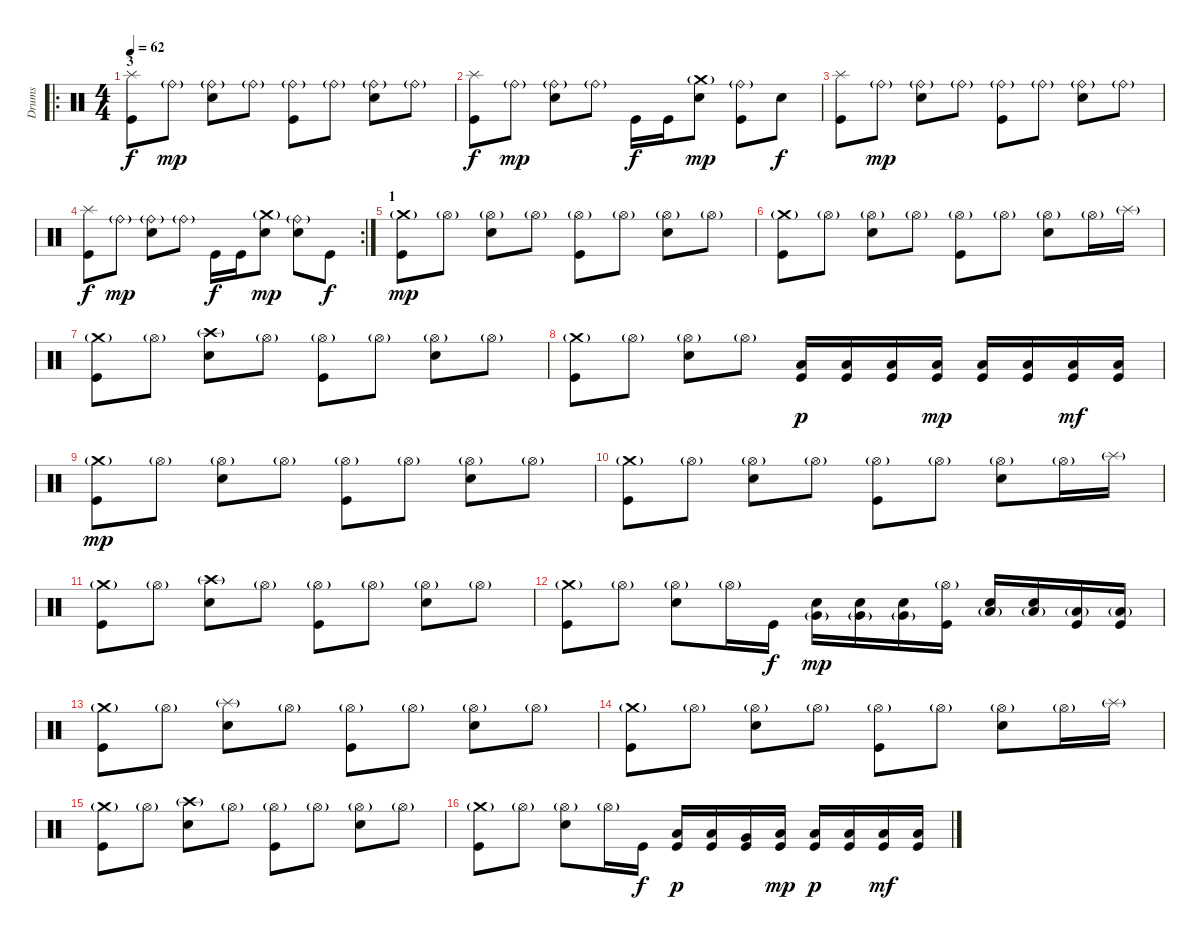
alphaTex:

\track ("Drums" "Drums") {instrument percussion}
\staff {score}
\articulation defaults
\ro
\ts (4 4)
\section ("" "3")
\tempo 62
\clef neutral
\ks c
("Kick (hit)" "Splash (hit)").8{dy f} "Ride (bell)"{g}.8{dy mp} ("Electric Snare (hit)" "Ride (bell)"{g}).8 "Ride (bell)"{g}.8 ("Kick (hit)" "Ride (bell)"{g}).8 "Ride (bell)"{g}.8 ("Electric Snare (hit)" "Ride (bell)"{g}).8 "Ride (bell)"{g}.8 |
("Kick (hit)" "Splash (hit)").8{dy f} "Ride (bell)"{g}.8{dy mp} ("Electric Snare (hit)" "Ride (bell)"{g}).8 "Ride (bell)"{g}.8 "Kick (hit)".16{dy f} "Kick (hit)".16 ("Electric Snare (hit)" "Crash medium (hit)"{g}).8{dy mp} ("Kick (hit)" "Ride (bell)"{g}).8 "Electric Snare (hit)".8{dy f} |
("Kick (hit)" "Splash (hit)").8 "Ride (bell)"{g}.8{dy mp} ("Electric Snare (hit)" "Ride (bell)"{g}).8 "Ride (bell)"{g}.8 ("Kick (hit)" "Ride (bell)"{g}).8 "Ride (bell)"{g}.8 ("Electric Snare (hit)" "Ride (bell)"{g}).8 "Ride (bell)"{g}.8 |
\rc 2
("Kick (hit)" "Splash (hit)").8{dy f} "Ride (bell)"{g}.8{dy mp} ("Electric Snare (hit)" "Ride (bell)"{g}).8 "Ride (bell)"{g}.8 "Kick (hit)".16{dy f} "Kick (hit)".16 ("Electric Snare (hit)" "Crash medium (hit)"{g}).8{dy mp} ("Electric Snare (hit)" "Ride (bell)"{g}).8 "Kick (hit)".8{dy f} |
\section ("" "1")
("Kick (hit)" "Crash medium (hit)"{g}).8{dy mp} "Hi-Hat (open)"{g}.8 ("Electric Snare (hit)" "Hi-Hat (open)"{g}).8 "Hi-Hat (open)"{g}.8 ("Kick (hit)" "Hi-Hat (open)"{g}).8 "Hi-Hat (open)"{g}.8 ("Electric Snare (hit)" "Hi-Hat (open)"{g}).8 "Hi-Hat (open)"{g}.8 |
("Kick (hit)" "Crash medium (hit)"{g}).8 "Hi-Hat (open)"{g}.8 ("Electric Snare (hit)" "Hi-Hat (open)"{g}).8 "Hi-Hat (open)"{g}.8 ("Kick (hit)" "Hi-Hat (open)"{g}).8 "Hi-Hat (open)"{g}.8 ("Electric Snare (hit)" "Hi-Hat (open)"{g}).8 "Hi-Hat (open)"{g}.16 "Splash (hit)"{g}.16 |
("Kick (hit)" "Crash medium (hit)"{g}).8 "Hi-Hat (open)"{g}.8 ("Electric Snare (hit)" "Crash high (hit)"{g}).8 "Hi-Hat (open)"{g}.8 ("Kick (hit)" "Hi-Hat (open)"{g}).8 "Hi-Hat (open)"{g}.8 ("Electric Snare (hit)" "Hi-Hat (open)"{g}).8 "Hi-Hat (open)"{g}.8 |
("Kick (hit)" "Crash medium (hit)"{g}).8 "Hi-Hat (open)"{g}.8 ("Electric Snare (hit)" "Hi-Hat (open)"{g}).8 "Hi-Hat (open)"{g}.8 ("Kick (hit)" "Low Floor Tom (hit)").16{dy p} ("Kick (hit)" "Low Floor Tom (hit)").16 ("Kick (hit)" "Low Floor Tom (hit)").16 ("Kick (hit)" "Low Floor Tom (hit)").16{dy mp} ("Kick (hit)" "Low Floor Tom (hit)").16 ("Kick (hit)" "Low Floor Tom (hit)").16 ("Kick (hit)" "Low Floor Tom (hit)").16{dy mf} ("Kick (hit)" "Low Floor Tom (hit)").16 |
("Kick (hit)" "Crash medium (hit)"{g}).8{dy mp} "Hi-Hat (open)"{g}.8 ("Electric Snare (hit)" "Hi-Hat (open)"{g}).8 "Hi-Hat (open)"{g}.8 ("Kick (hit)" "Hi-Hat (open)"{g}).8 "Hi-Hat (open)"{g}.8 ("Electric Snare (hit)" "Hi-Hat (open)"{g}).8 "Hi-Hat (open)"{g}.8 |
("Kick (hit)" "Crash medium (hit)"{g}).8 "Hi-Hat (open)"{g}.8 ("Electric Snare (hit)" "Hi-Hat (open)"{g}).8 "Hi-Hat (open)"{g}.8 ("Kick (hit)" "Hi-Hat (open)"{g}).8 "Hi-Hat (open)"{g}.8 ("Electric Snare (hit)" "Hi-Hat (open)"{g}).8 "Hi-Hat (open)"{g}.16 "Splash (hit)"{g}.16 |
("Kick (hit)" "Crash medium (hit)"{g}).8 "Hi-Hat (open)"{g}.8 ("Electric Snare (hit)" "Crash high (hit)"{g}).8 "Hi-Hat (open)"{g}.8 ("Kick (hit)" "Hi-Hat (open)"{g}).8 "Hi-Hat (open)"{g}.8 ("Electric Snare (hit)" "Hi-Hat (open)"{g}).8 "Hi-Hat (open)"{g}.8 |
("Kick (hit)" "Crash medium (hit)"{g}).8 "Hi-Hat (open)"{g}.8 ("Electric Snare (hit)" "Hi-Hat (open)"{g}).8 "Hi-Hat (open)"{g}.16 "Kick (hit)".16{dy f} ("Electric Snare (hit)" "Very Low Tom (hit)"{g}).16{dy mp} ("Electric Snare (hit)" "Very Low Tom (hit)"{g}).16 ("Electric Snare (hit)" "Very Low Tom (hit)"{g}).16 ("Kick (hit)" "Hi-Hat (open)"{g}).16 ("Electric Snare (hit)" "Low Floor Tom (hit)"{g}).16 ("Electric Snare (hit)" "Low Floor Tom (hit)"{g}).16 ("Kick (hit)" "Low Floor Tom (hit)"{g}).16 ("Kick (hit)" "Low Floor Tom (hit)"{g}).16 |
("Kick (hit)" "Crash medium (hit)"{g}).8 "Hi-Hat (open)"{g}.8 ("Electric Snare (hit)" "Splash (hit)"{g}).8 "Hi-Hat (open)"{g}.8 ("Kick (hit)" "Hi-Hat (open)"{g}).8 "Hi-Hat (open)"{g}.8 ("Electric Snare (hit)" "Hi-Hat (open)"{g}).8 "Hi-Hat (open)"{g}.8 |
("Kick (hit)" "Crash medium (hit)"{g}).8 "Hi-Hat (open)"{g}.8 ("Electric Snare (hit)" "Hi-Hat (open)"{g}).8 "Hi-Hat (open)"{g}.8 ("Kick (hit)" "Hi-Hat (open)"{g}).8 "Hi-Hat (open)"{g}.8 ("Electric Snare (hit)" "Hi-Hat (open)"{g}).8 "Hi-Hat (open)"{g}.16 "Splash (hit)"{g}.16 |
("Kick (hit)" "Crash medium (hit)"{g}).8 "Hi-Hat (open)"{g}.8 ("Electric Snare (hit)" "Crash high (hit)"{g}).8 "Hi-Hat (open)"{g}.8 ("Kick (hit)" "Hi-Hat (open)"{g}).8 "Hi-Hat (open)"{g}.8 ("Electric Snare (hit)" "Hi-Hat (open)"{g}).8 "Hi-Hat (open)"{g}.8 |
("Kick (hit)" "Crash medium (hit)"{g}).8 "Hi-Hat (open)"{g}.8 ("Electric Snare (hit)" "Hi-Hat (open)"{g}).8 "Hi-Hat (open)"{g}.16 "Kick (hit)".16{dy f} ("Kick (hit)" "Low Tom (hit)").16{dy p} ("Kick (hit)" "Low Tom (hit)").16 ("Kick (hit)" "Very Low Tom (hit)").16 ("Kick (hit)" "Low Floor Tom (hit)").16{dy mp} ("Kick (hit)" "Low Floor Tom (hit)").16{dy p} ("Kick (hit)" "Low Floor Tom (hit)").16 ("Kick (hit)" "Low Floor Tom (hit)").16{dy mf} ("Kick (hit)" "Low Floor Tom (hit)").16
